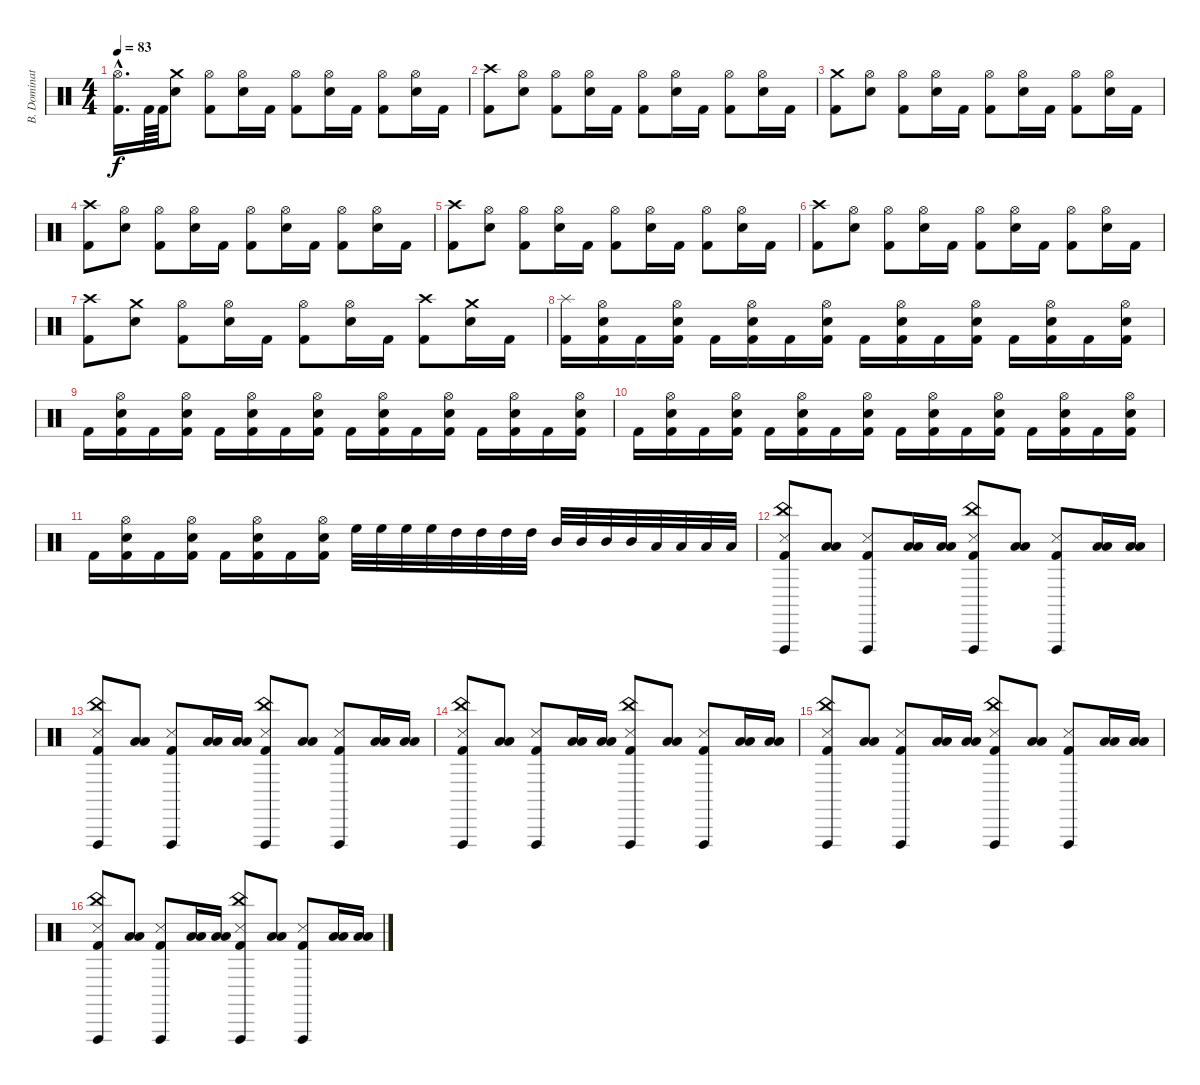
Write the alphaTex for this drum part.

\track ("B. Dominator" "B. Dominat") {instrument percussion}
\staff {score}
\articulation defaults
\ts (4 4)
\tempo 83
\clef neutral
\ks c
("Hi-Hat (open)"{hac} "Kick (hit) 2"{hac}).16{d dy f} "Kick (hit) 2".64 "Kick (hit) 2".64 ("Crash medium (hit)" "Electric Snare (hit)").8 ("Hi-Hat (open)" "Kick (hit) 2").8 ("Hi-Hat (open)" "Electric Snare (hit)").16 "Kick (hit) 2".16 ("Hi-Hat (open)" "Kick (hit) 2").8 ("Hi-Hat (open)" "Electric Snare (hit)").16 "Kick (hit) 2".16 ("Hi-Hat (open)" "Kick (hit) 2").8 ("Hi-Hat (open)" "Electric Snare (hit)").16 "Kick (hit) 2".16 |
("Crash high (hit)" "Kick (hit) 2").8 ("Hi-Hat (open)" "Electric Snare (hit)").8 ("Hi-Hat (open)" "Kick (hit) 2").8 ("Hi-Hat (open)" "Electric Snare (hit)").16 "Kick (hit) 2".16 ("Hi-Hat (open)" "Kick (hit) 2").8 ("Hi-Hat (open)" "Electric Snare (hit)").16 "Kick (hit) 2".16 ("Hi-Hat (open)" "Kick (hit) 2").8 ("Hi-Hat (open)" "Electric Snare (hit)").16 "Kick (hit) 2".16 |
("Crash medium (hit)" "Kick (hit) 2").8 ("Hi-Hat (open)" "Electric Snare (hit)").8 ("Hi-Hat (open)" "Kick (hit) 2").8 ("Hi-Hat (open)" "Electric Snare (hit)").16 "Kick (hit) 2".16 ("Hi-Hat (open)" "Kick (hit) 2").8 ("Hi-Hat (open)" "Electric Snare (hit)").16 "Kick (hit) 2".16 ("Hi-Hat (open)" "Kick (hit) 2").8 ("Hi-Hat (open)" "Electric Snare (hit)").16 "Kick (hit) 2".16 |
("Crash high (hit)" "Kick (hit) 2").8 ("Hi-Hat (open)" "Electric Snare (hit)").8 ("Hi-Hat (open)" "Kick (hit) 2").8 ("Hi-Hat (open)" "Electric Snare (hit)").16 "Kick (hit) 2".16 ("Hi-Hat (open)" "Kick (hit) 2").8 ("Hi-Hat (open)" "Electric Snare (hit)").16 "Kick (hit) 2".16 ("Hi-Hat (open)" "Kick (hit) 2").8 ("Hi-Hat (open)" "Electric Snare (hit)").16 "Kick (hit) 2".16 |
("Crash high (hit)" "Kick (hit) 2").8 ("Hi-Hat (open)" "Electric Snare (hit)").8 ("Hi-Hat (open)" "Kick (hit) 2").8 ("Hi-Hat (open)" "Electric Snare (hit)").16 "Kick (hit) 2".16 ("Hi-Hat (open)" "Kick (hit) 2").8 ("Hi-Hat (open)" "Electric Snare (hit)").16 "Kick (hit) 2".16 ("Hi-Hat (open)" "Kick (hit) 2").8 ("Hi-Hat (open)" "Electric Snare (hit)").16 "Kick (hit) 2".16 |
("Crash high (hit)" "Kick (hit) 2").8 ("Hi-Hat (open)" "Electric Snare (hit)").8 ("Hi-Hat (open)" "Kick (hit) 2").8 ("Hi-Hat (open)" "Electric Snare (hit)").16 "Kick (hit) 2".16 ("Hi-Hat (open)" "Kick (hit) 2").8 ("Hi-Hat (open)" "Electric Snare (hit)").16 "Kick (hit) 2".16 ("Hi-Hat (open)" "Kick (hit) 2").8 ("Hi-Hat (open)" "Electric Snare (hit)").16 "Kick (hit) 2".16 |
("Crash high (hit)" "Kick (hit) 2").8 ("Crash medium (hit)" "Electric Snare (hit)").8 ("Hi-Hat (open)" "Kick (hit) 2").8 ("Hi-Hat (open)" "Electric Snare (hit)").16 "Kick (hit) 2".16 ("Hi-Hat (open)" "Kick (hit) 2").8 ("Hi-Hat (open)" "Electric Snare (hit)").16 "Kick (hit) 2".16 ("Crash high (hit)" "Kick (hit) 2").8 ("Crash medium (hit)" "Electric Snare (hit)").16 "Kick (hit) 2".16 |
("Splash (hit)" "Kick (hit) 2").16 ("Hi-Hat (open)" "Electric Snare (hit)" "Kick (hit) 2").16 "Kick (hit) 2".16 ("Hi-Hat (open)" "Electric Snare (hit)" "Kick (hit) 2").16 "Kick (hit) 2".16 ("Hi-Hat (open)" "Electric Snare (hit)" "Kick (hit) 2").16 "Kick (hit) 2".16 ("Hi-Hat (open)" "Electric Snare (hit)" "Kick (hit) 2").16 "Kick (hit) 2".16 ("Hi-Hat (open)" "Electric Snare (hit)" "Kick (hit) 2").16 "Kick (hit) 2".16 ("Hi-Hat (open)" "Electric Snare (hit)" "Kick (hit) 2").16 "Kick (hit) 2".16 ("Hi-Hat (open)" "Electric Snare (hit)" "Kick (hit) 2").16 "Kick (hit) 2".16 ("Hi-Hat (open)" "Electric Snare (hit)" "Kick (hit) 2").16 |
"Kick (hit) 2".16 ("Hi-Hat (open)" "Electric Snare (hit)" "Kick (hit) 2").16 "Kick (hit) 2".16 ("Hi-Hat (open)" "Electric Snare (hit)" "Kick (hit) 2").16 "Kick (hit) 2".16 ("Hi-Hat (open)" "Electric Snare (hit)" "Kick (hit) 2").16 "Kick (hit) 2".16 ("Hi-Hat (open)" "Electric Snare (hit)" "Kick (hit) 2").16 "Kick (hit) 2".16 ("Hi-Hat (open)" "Electric Snare (hit)" "Kick (hit) 2").16 "Kick (hit) 2".16 ("Hi-Hat (open)" "Electric Snare (hit)" "Kick (hit) 2").16 "Kick (hit) 2".16 ("Hi-Hat (open)" "Electric Snare (hit)" "Kick (hit) 2").16 "Kick (hit) 2".16 ("Hi-Hat (open)" "Electric Snare (hit)" "Kick (hit) 2").16 |
"Kick (hit) 2".16 ("Hi-Hat (open)" "Electric Snare (hit)" "Kick (hit) 2").16 "Kick (hit) 2".16 ("Hi-Hat (open)" "Electric Snare (hit)" "Kick (hit) 2").16 "Kick (hit) 2".16 ("Hi-Hat (open)" "Electric Snare (hit)" "Kick (hit) 2").16 "Kick (hit) 2".16 ("Hi-Hat (open)" "Electric Snare (hit)" "Kick (hit) 2").16 "Kick (hit) 2".16 ("Hi-Hat (open)" "Electric Snare (hit)" "Kick (hit) 2").16 "Kick (hit) 2".16 ("Hi-Hat (open)" "Electric Snare (hit)" "Kick (hit) 2").16 "Kick (hit) 2".16 ("Hi-Hat (open)" "Electric Snare (hit)" "Kick (hit) 2").16 "Kick (hit) 2".16 ("Hi-Hat (open)" "Electric Snare (hit)" "Kick (hit) 2").16 |
"Kick (hit) 2".16 ("Hi-Hat (open)" "Electric Snare (hit)" "Kick (hit) 2").16 "Kick (hit) 2".16 ("Hi-Hat (open)" "Electric Snare (hit)" "Kick (hit) 2").16 "Kick (hit) 2".16 ("Hi-Hat (open)" "Electric Snare (hit)" "Kick (hit) 2").16 "Kick (hit) 2".16 ("Hi-Hat (open)" "Electric Snare (hit)" "Kick (hit) 2").16 "High Floor Tom (hit)".32 "High Floor Tom (hit)".32 "High Floor Tom (hit)".32 "High Floor Tom (hit)".32 "High Tom (hit)".32 "High Tom (hit)".32 "High Tom (hit)".32 "High Tom (hit)".32 "Mid Tom (hit)".32 "Mid Tom (hit)".32 "Mid Tom (hit)".32 "Mid Tom (hit)".32 "Low Tom (hit)".32 "Low Tom (hit)".32 "Low Tom (hit)".32 "Low Tom (hit)".32 |
("China (hit)" "Vibraslap (hit)" "Snare (side stick) 3" "Kick (hit) 2").8 ("Low Tom (hit)" "Low Floor Tom (hit)").8 ("Vibraslap (hit)" "Snare (side stick) 3" "Kick (hit) 2").8 ("Low Tom (hit)" "Low Floor Tom (hit)").16 ("Low Tom (hit)" "Low Floor Tom (hit)").16 ("China (hit)" "Vibraslap (hit)" "Snare (side stick) 3" "Kick (hit) 2").8 ("Low Tom (hit)" "Low Floor Tom (hit)").8 ("Vibraslap (hit)" "Snare (side stick) 3" "Kick (hit) 2").8 ("Low Tom (hit)" "Low Floor Tom (hit)").16 ("Low Tom (hit)" "Low Floor Tom (hit)").16 |
("China (hit)" "Vibraslap (hit)" "Snare (side stick) 3" "Kick (hit) 2").8 ("Low Tom (hit)" "Low Floor Tom (hit)").8 ("Vibraslap (hit)" "Snare (side stick) 3" "Kick (hit) 2").8 ("Low Tom (hit)" "Low Floor Tom (hit)").16 ("Low Tom (hit)" "Low Floor Tom (hit)").16 ("China (hit)" "Vibraslap (hit)" "Snare (side stick) 3" "Kick (hit) 2").8 ("Low Tom (hit)" "Low Floor Tom (hit)").8 ("Vibraslap (hit)" "Snare (side stick) 3" "Kick (hit) 2").8 ("Low Tom (hit)" "Low Floor Tom (hit)").16 ("Low Tom (hit)" "Low Floor Tom (hit)").16 |
("China (hit)" "Vibraslap (hit)" "Snare (side stick) 3" "Kick (hit) 2").8 ("Low Tom (hit)" "Low Floor Tom (hit)").8 ("Vibraslap (hit)" "Snare (side stick) 3" "Kick (hit) 2").8 ("Low Tom (hit)" "Low Floor Tom (hit)").16 ("Low Tom (hit)" "Low Floor Tom (hit)").16 ("China (hit)" "Vibraslap (hit)" "Snare (side stick) 3" "Kick (hit) 2").8 ("Low Tom (hit)" "Low Floor Tom (hit)").8 ("Vibraslap (hit)" "Snare (side stick) 3" "Kick (hit) 2").8 ("Low Tom (hit)" "Low Floor Tom (hit)").16 ("Low Tom (hit)" "Low Floor Tom (hit)").16 |
("China (hit)" "Vibraslap (hit)" "Snare (side stick) 3" "Kick (hit) 2").8 ("Low Tom (hit)" "Low Floor Tom (hit)").8 ("Vibraslap (hit)" "Snare (side stick) 3" "Kick (hit) 2").8 ("Low Tom (hit)" "Low Floor Tom (hit)").16 ("Low Tom (hit)" "Low Floor Tom (hit)").16 ("China (hit)" "Vibraslap (hit)" "Snare (side stick) 3" "Kick (hit) 2").8 ("Low Tom (hit)" "Low Floor Tom (hit)").8 ("Vibraslap (hit)" "Snare (side stick) 3" "Kick (hit) 2").8 ("Low Tom (hit)" "Low Floor Tom (hit)").16 ("Low Tom (hit)" "Low Floor Tom (hit)").16 |
("China (hit)" "Vibraslap (hit)" "Snare (side stick) 3" "Kick (hit) 2").8 ("Low Tom (hit)" "Low Floor Tom (hit)").8 ("Vibraslap (hit)" "Snare (side stick) 3" "Kick (hit) 2").8 ("Low Tom (hit)" "Low Floor Tom (hit)").16 ("Low Tom (hit)" "Low Floor Tom (hit)").16 ("China (hit)" "Vibraslap (hit)" "Snare (side stick) 3" "Kick (hit) 2").8 ("Low Tom (hit)" "Low Floor Tom (hit)").8 ("Vibraslap (hit)" "Snare (side stick) 3" "Kick (hit) 2").8 ("Low Tom (hit)" "Low Floor Tom (hit)").16 ("Low Tom (hit)" "Low Floor Tom (hit)").16
